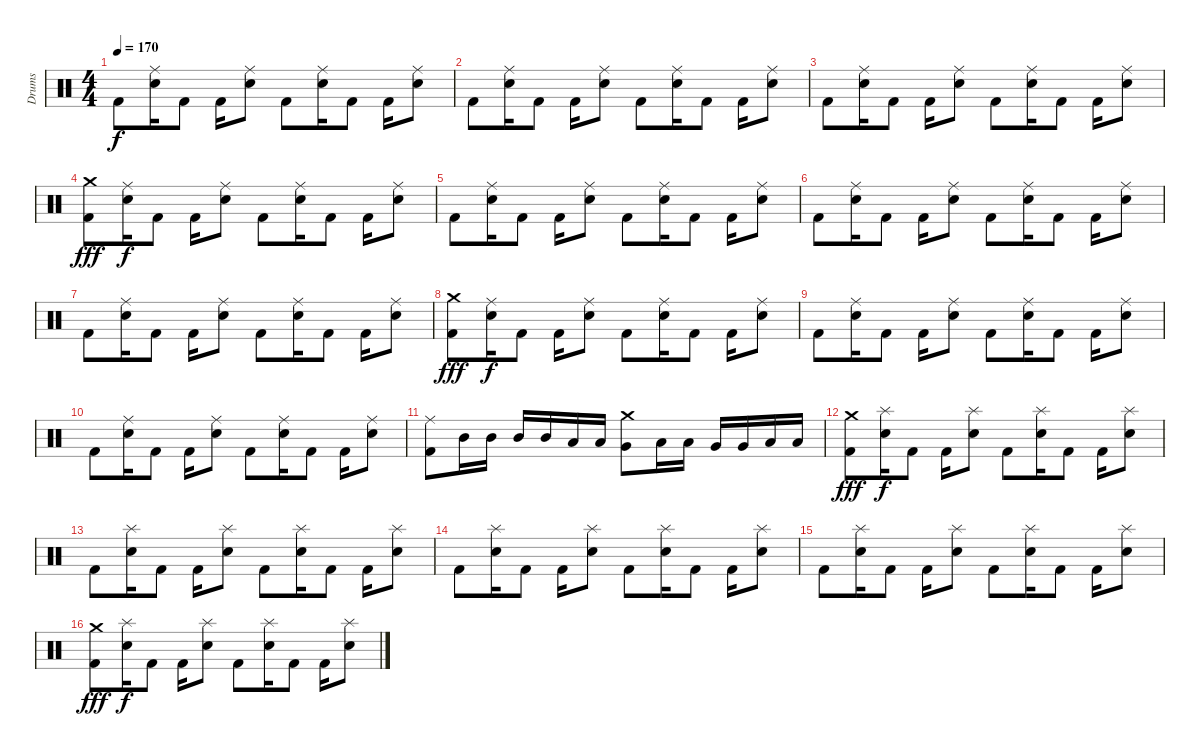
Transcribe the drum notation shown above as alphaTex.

\track ("Drums" "Drums") {instrument percussion}
\staff {score}
\articulation defaults
\ts (4 4)
\tempo 170
\clef neutral
\ks c "Kick (hit) 2".8{dy f}
("Electric Snare (hit)" "Ride (middle)").16 "Kick (hit) 2".8 "Kick (hit) 2".16 ("Electric Snare (hit)" "Ride (middle)").8 "Kick (hit) 2".8 ("Electric Snare (hit)" "Ride (middle)").16 "Kick (hit) 2".8 "Kick (hit) 2".16 ("Electric Snare (hit)" "Ride (middle)").8 |
"Kick (hit) 2".8 ("Electric Snare (hit)" "Ride (middle)").16 "Kick (hit) 2".8 "Kick (hit) 2".16 ("Electric Snare (hit)" "Ride (middle)").8 "Kick (hit) 2".8 ("Electric Snare (hit)" "Ride (middle)").16 "Kick (hit) 2".8 "Kick (hit) 2".16 ("Electric Snare (hit)" "Ride (middle)").8 |
"Kick (hit) 2".8 ("Electric Snare (hit)" "Ride (middle)").16 "Kick (hit) 2".8 "Kick (hit) 2".16 ("Electric Snare (hit)" "Ride (middle)").8 "Kick (hit) 2".8 ("Electric Snare (hit)" "Ride (middle)").16 "Kick (hit) 2".8 "Kick (hit) 2".16 ("Electric Snare (hit)" "Ride (middle)").8 |
("Kick (hit) 2" "Crash medium (hit)").8{dy fff} ("Electric Snare (hit)" "Ride (middle)").16{dy f} "Kick (hit) 2".8 "Kick (hit) 2".16 ("Electric Snare (hit)" "Ride (middle)").8 "Kick (hit) 2".8 ("Electric Snare (hit)" "Ride (middle)").16 "Kick (hit) 2".8 "Kick (hit) 2".16 ("Electric Snare (hit)" "Ride (middle)").8 |
"Kick (hit) 2".8 ("Electric Snare (hit)" "Ride (middle)").16 "Kick (hit) 2".8 "Kick (hit) 2".16 ("Electric Snare (hit)" "Ride (middle)").8 "Kick (hit) 2".8 ("Electric Snare (hit)" "Ride (middle)").16 "Kick (hit) 2".8 "Kick (hit) 2".16 ("Electric Snare (hit)" "Ride (middle)").8 |
"Kick (hit) 2".8 ("Electric Snare (hit)" "Ride (middle)").16 "Kick (hit) 2".8 "Kick (hit) 2".16 ("Electric Snare (hit)" "Ride (middle)").8 "Kick (hit) 2".8 ("Electric Snare (hit)" "Ride (middle)").16 "Kick (hit) 2".8 "Kick (hit) 2".16 ("Electric Snare (hit)" "Ride (middle)").8 |
"Kick (hit) 2".8 ("Electric Snare (hit)" "Ride (middle)").16 "Kick (hit) 2".8 "Kick (hit) 2".16 ("Electric Snare (hit)" "Ride (middle)").8 "Kick (hit) 2".8 ("Electric Snare (hit)" "Ride (middle)").16 "Kick (hit) 2".8 "Kick (hit) 2".16 ("Electric Snare (hit)" "Ride (middle)").8 |
("Kick (hit) 2" "Crash medium (hit)").8{dy fff} ("Electric Snare (hit)" "Ride (middle)").16{dy f} "Kick (hit) 2".8 "Kick (hit) 2".16 ("Electric Snare (hit)" "Ride (middle)").8 "Kick (hit) 2".8 ("Electric Snare (hit)" "Ride (middle)").16 "Kick (hit) 2".8 "Kick (hit) 2".16 ("Electric Snare (hit)" "Ride (middle)").8 |
"Kick (hit) 2".8 ("Electric Snare (hit)" "Ride (middle)").16 "Kick (hit) 2".8 "Kick (hit) 2".16 ("Electric Snare (hit)" "Ride (middle)").8 "Kick (hit) 2".8 ("Electric Snare (hit)" "Ride (middle)").16 "Kick (hit) 2".8 "Kick (hit) 2".16 ("Electric Snare (hit)" "Ride (middle)").8 |
"Kick (hit) 2".8 ("Electric Snare (hit)" "Ride (middle)").16 "Kick (hit) 2".8 "Kick (hit) 2".16 ("Electric Snare (hit)" "Ride (middle)").8 "Kick (hit) 2".8 ("Electric Snare (hit)" "Ride (middle)").16 "Kick (hit) 2".8 "Kick (hit) 2".16 ("Electric Snare (hit)" "Ride (middle)").8 |
("Kick (hit) 2" "Ride (middle)").8 "Mid Tom (hit)".16 "Mid Tom (hit)".16 "Mid Tom (hit)".16 "Mid Tom (hit)".16 "Low Tom (hit)".16 "Low Tom (hit)".16 ("Very Low Tom (hit)" "Crash medium (hit)").8 "Low Tom (hit)".16 "Low Tom (hit)".16 "Very Low Tom (hit)".16 "Very Low Tom (hit)".16 "Low Floor Tom (hit)".16 "Low Floor Tom (hit)".16 |
("Kick (hit) 2" "Crash medium (hit)").8{dy fff} ("Electric Snare (hit)" "Splash (hit)").16{dy f} "Kick (hit) 2".8 "Kick (hit) 2".16 ("Electric Snare (hit)" "Splash (hit)").8 "Kick (hit) 2".8 ("Electric Snare (hit)" "Splash (hit)").16 "Kick (hit) 2".8 "Kick (hit) 2".16 ("Electric Snare (hit)" "Splash (hit)").8 |
"Kick (hit) 2".8 ("Electric Snare (hit)" "Splash (hit)").16 "Kick (hit) 2".8 "Kick (hit) 2".16 ("Electric Snare (hit)" "Splash (hit)").8 "Kick (hit) 2".8 ("Electric Snare (hit)" "Splash (hit)").16 "Kick (hit) 2".8 "Kick (hit) 2".16 ("Electric Snare (hit)" "Splash (hit)").8 |
"Kick (hit) 2".8 ("Electric Snare (hit)" "Splash (hit)").16 "Kick (hit) 2".8 "Kick (hit) 2".16 ("Electric Snare (hit)" "Splash (hit)").8 "Kick (hit) 2".8 ("Electric Snare (hit)" "Splash (hit)").16 "Kick (hit) 2".8 "Kick (hit) 2".16 ("Electric Snare (hit)" "Splash (hit)").8 |
"Kick (hit) 2".8 ("Electric Snare (hit)" "Splash (hit)").16 "Kick (hit) 2".8 "Kick (hit) 2".16 ("Electric Snare (hit)" "Splash (hit)").8 "Kick (hit) 2".8 ("Electric Snare (hit)" "Splash (hit)").16 "Kick (hit) 2".8 "Kick (hit) 2".16 ("Electric Snare (hit)" "Splash (hit)").8 |
("Kick (hit) 2" "Crash medium (hit)").8{dy fff} ("Electric Snare (hit)" "Splash (hit)").16{dy f} "Kick (hit) 2".8 "Kick (hit) 2".16 ("Electric Snare (hit)" "Splash (hit)").8 "Kick (hit) 2".8 ("Electric Snare (hit)" "Splash (hit)").16 "Kick (hit) 2".8 "Kick (hit) 2".16 ("Electric Snare (hit)" "Splash (hit)").8
